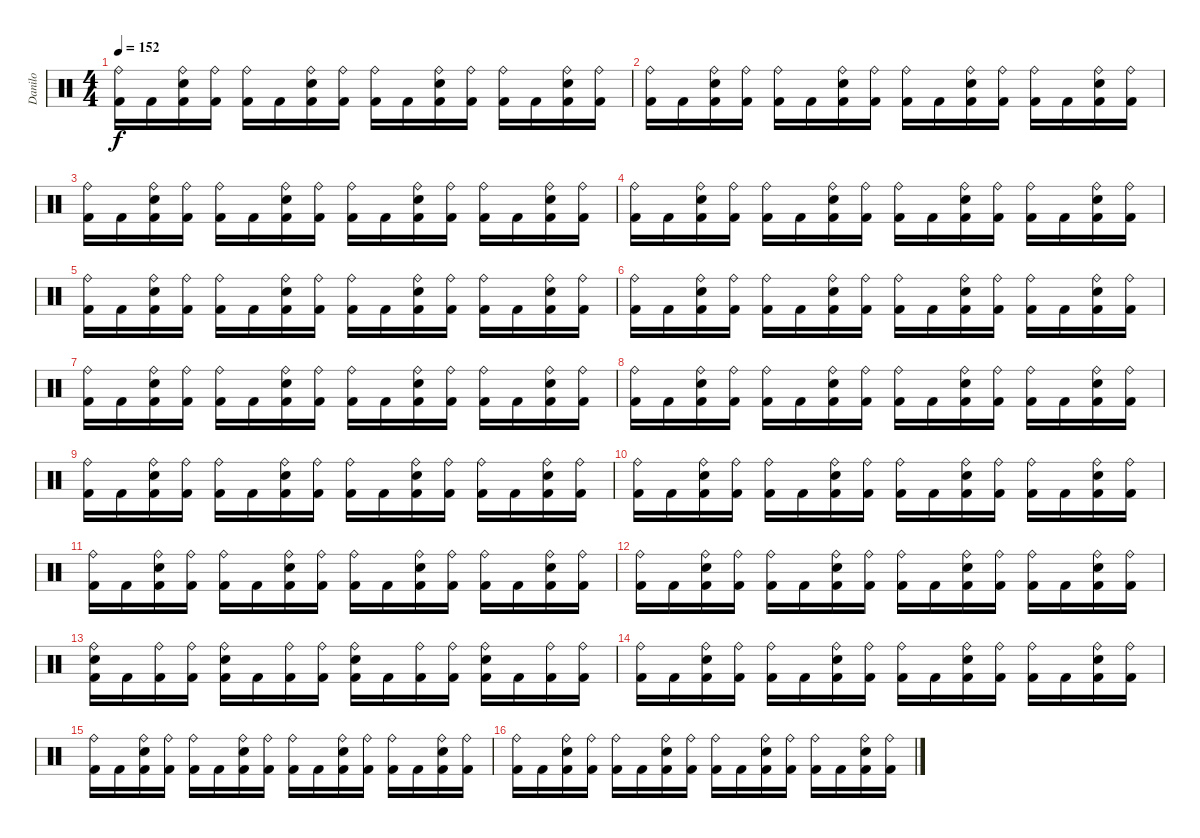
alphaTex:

\track ("Danilo" "Danilo") {instrument percussion}
\staff {score}
\articulation defaults
\ts (4 4)
\tempo 152
\clef neutral
\ks c
("Ride (bell)" "Kick (hit) 2").16{dy f} "Kick (hit) 2".16 ("Ride (bell)" "Snare (hit) 2" "Kick (hit) 2").16 ("Ride (bell)" "Kick (hit) 2").16 ("Ride (bell)" "Kick (hit) 2").16 "Kick (hit) 2".16 ("Ride (bell)" "Snare (hit) 2" "Kick (hit) 2").16 ("Ride (bell)" "Kick (hit) 2").16 ("Ride (bell)" "Kick (hit) 2").16 "Kick (hit) 2".16 ("Ride (bell)" "Snare (hit) 2" "Kick (hit) 2").16 ("Ride (bell)" "Kick (hit) 2").16 ("Ride (bell)" "Kick (hit) 2").16 "Kick (hit) 2".16 ("Ride (bell)" "Snare (hit) 2" "Kick (hit) 2").16 ("Ride (bell)" "Kick (hit) 2").16 |
("Ride (bell)" "Kick (hit) 2").16 "Kick (hit) 2".16 ("Ride (bell)" "Snare (hit) 2" "Kick (hit) 2").16 ("Ride (bell)" "Kick (hit) 2").16 ("Ride (bell)" "Kick (hit) 2").16 "Kick (hit) 2".16 ("Ride (bell)" "Snare (hit) 2" "Kick (hit) 2").16 ("Ride (bell)" "Kick (hit) 2").16 ("Ride (bell)" "Kick (hit) 2").16 "Kick (hit) 2".16 ("Ride (bell)" "Snare (hit) 2" "Kick (hit) 2").16 ("Ride (bell)" "Kick (hit) 2").16 ("Ride (bell)" "Kick (hit) 2").16 "Kick (hit) 2".16 ("Ride (bell)" "Snare (hit) 2" "Kick (hit) 2").16 ("Ride (bell)" "Kick (hit) 2").16 |
("Ride (bell)" "Kick (hit) 2").16 "Kick (hit) 2".16 ("Ride (bell)" "Snare (hit) 2" "Kick (hit) 2").16 ("Ride (bell)" "Kick (hit) 2").16 ("Ride (bell)" "Kick (hit) 2").16 "Kick (hit) 2".16 ("Ride (bell)" "Snare (hit) 2" "Kick (hit) 2").16 ("Ride (bell)" "Kick (hit) 2").16 ("Ride (bell)" "Kick (hit) 2").16 "Kick (hit) 2".16 ("Ride (bell)" "Snare (hit) 2" "Kick (hit) 2").16 ("Ride (bell)" "Kick (hit) 2").16 ("Ride (bell)" "Kick (hit) 2").16 "Kick (hit) 2".16 ("Ride (bell)" "Snare (hit) 2" "Kick (hit) 2").16 ("Ride (bell)" "Kick (hit) 2").16 |
("Ride (bell)" "Kick (hit) 2").16 "Kick (hit) 2".16 ("Ride (bell)" "Snare (hit) 2" "Kick (hit) 2").16 ("Ride (bell)" "Kick (hit) 2").16 ("Ride (bell)" "Kick (hit) 2").16 "Kick (hit) 2".16 ("Ride (bell)" "Snare (hit) 2" "Kick (hit) 2").16 ("Ride (bell)" "Kick (hit) 2").16 ("Ride (bell)" "Kick (hit) 2").16 "Kick (hit) 2".16 ("Ride (bell)" "Snare (hit) 2" "Kick (hit) 2").16 ("Ride (bell)" "Kick (hit) 2").16 ("Ride (bell)" "Kick (hit) 2").16 "Kick (hit) 2".16 ("Ride (bell)" "Snare (hit) 2" "Kick (hit) 2").16 ("Ride (bell)" "Kick (hit) 2").16 |
("Ride (bell)" "Kick (hit) 2").16 "Kick (hit) 2".16 ("Ride (bell)" "Snare (hit) 2" "Kick (hit) 2").16 ("Ride (bell)" "Kick (hit) 2").16 ("Ride (bell)" "Kick (hit) 2").16 "Kick (hit) 2".16 ("Ride (bell)" "Snare (hit) 2" "Kick (hit) 2").16 ("Ride (bell)" "Kick (hit) 2").16 ("Ride (bell)" "Kick (hit) 2").16 "Kick (hit) 2".16 ("Ride (bell)" "Snare (hit) 2" "Kick (hit) 2").16 ("Ride (bell)" "Kick (hit) 2").16 ("Ride (bell)" "Kick (hit) 2").16 "Kick (hit) 2".16 ("Ride (bell)" "Snare (hit) 2" "Kick (hit) 2").16 ("Ride (bell)" "Kick (hit) 2").16 |
("Ride (bell)" "Kick (hit) 2").16 "Kick (hit) 2".16 ("Ride (bell)" "Snare (hit) 2" "Kick (hit) 2").16 ("Ride (bell)" "Kick (hit) 2").16 ("Ride (bell)" "Kick (hit) 2").16 "Kick (hit) 2".16 ("Ride (bell)" "Snare (hit) 2" "Kick (hit) 2").16 ("Ride (bell)" "Kick (hit) 2").16 ("Ride (bell)" "Kick (hit) 2").16 "Kick (hit) 2".16 ("Ride (bell)" "Snare (hit) 2" "Kick (hit) 2").16 ("Ride (bell)" "Kick (hit) 2").16 ("Ride (bell)" "Kick (hit) 2").16 "Kick (hit) 2".16 ("Ride (bell)" "Snare (hit) 2" "Kick (hit) 2").16 ("Ride (bell)" "Kick (hit) 2").16 |
("Ride (bell)" "Kick (hit) 2").16 "Kick (hit) 2".16 ("Ride (bell)" "Snare (hit) 2" "Kick (hit) 2").16 ("Ride (bell)" "Kick (hit) 2").16 ("Ride (bell)" "Kick (hit) 2").16 "Kick (hit) 2".16 ("Ride (bell)" "Snare (hit) 2" "Kick (hit) 2").16 ("Ride (bell)" "Kick (hit) 2").16 ("Ride (bell)" "Kick (hit) 2").16 "Kick (hit) 2".16 ("Ride (bell)" "Snare (hit) 2" "Kick (hit) 2").16 ("Ride (bell)" "Kick (hit) 2").16 ("Ride (bell)" "Kick (hit) 2").16 "Kick (hit) 2".16 ("Ride (bell)" "Snare (hit) 2" "Kick (hit) 2").16 ("Ride (bell)" "Kick (hit) 2").16 |
("Ride (bell)" "Kick (hit) 2").16 "Kick (hit) 2".16 ("Ride (bell)" "Snare (hit) 2" "Kick (hit) 2").16 ("Ride (bell)" "Kick (hit) 2").16 ("Ride (bell)" "Kick (hit) 2").16 "Kick (hit) 2".16 ("Ride (bell)" "Snare (hit) 2" "Kick (hit) 2").16 ("Ride (bell)" "Kick (hit) 2").16 ("Ride (bell)" "Kick (hit) 2").16 "Kick (hit) 2".16 ("Ride (bell)" "Snare (hit) 2" "Kick (hit) 2").16 ("Ride (bell)" "Kick (hit) 2").16 ("Ride (bell)" "Kick (hit) 2").16 "Kick (hit) 2".16 ("Ride (bell)" "Snare (hit) 2" "Kick (hit) 2").16 ("Ride (bell)" "Kick (hit) 2").16 |
("Ride (bell)" "Kick (hit) 2").16 "Kick (hit) 2".16 ("Ride (bell)" "Snare (hit) 2" "Kick (hit) 2").16 ("Ride (bell)" "Kick (hit) 2").16 ("Ride (bell)" "Kick (hit) 2").16 "Kick (hit) 2".16 ("Ride (bell)" "Snare (hit) 2" "Kick (hit) 2").16 ("Ride (bell)" "Kick (hit) 2").16 ("Ride (bell)" "Kick (hit) 2").16 "Kick (hit) 2".16 ("Ride (bell)" "Snare (hit) 2" "Kick (hit) 2").16 ("Ride (bell)" "Kick (hit) 2").16 ("Ride (bell)" "Kick (hit) 2").16 "Kick (hit) 2".16 ("Ride (bell)" "Snare (hit) 2" "Kick (hit) 2").16 ("Ride (bell)" "Kick (hit) 2").16 |
("Ride (bell)" "Kick (hit) 2").16 "Kick (hit) 2".16 ("Ride (bell)" "Snare (hit) 2" "Kick (hit) 2").16 ("Ride (bell)" "Kick (hit) 2").16 ("Ride (bell)" "Kick (hit) 2").16 "Kick (hit) 2".16 ("Ride (bell)" "Snare (hit) 2" "Kick (hit) 2").16 ("Ride (bell)" "Kick (hit) 2").16 ("Ride (bell)" "Kick (hit) 2").16 "Kick (hit) 2".16 ("Ride (bell)" "Snare (hit) 2" "Kick (hit) 2").16 ("Ride (bell)" "Kick (hit) 2").16 ("Ride (bell)" "Kick (hit) 2").16 "Kick (hit) 2".16 ("Ride (bell)" "Snare (hit) 2" "Kick (hit) 2").16 ("Ride (bell)" "Kick (hit) 2").16 |
("Ride (bell)" "Kick (hit) 2").16 "Kick (hit) 2".16 ("Ride (bell)" "Snare (hit) 2" "Kick (hit) 2").16 ("Ride (bell)" "Kick (hit) 2").16 ("Ride (bell)" "Kick (hit) 2").16 "Kick (hit) 2".16 ("Ride (bell)" "Snare (hit) 2" "Kick (hit) 2").16 ("Ride (bell)" "Kick (hit) 2").16 ("Ride (bell)" "Kick (hit) 2").16 "Kick (hit) 2".16 ("Ride (bell)" "Snare (hit) 2" "Kick (hit) 2").16 ("Ride (bell)" "Kick (hit) 2").16 ("Ride (bell)" "Kick (hit) 2").16 "Kick (hit) 2".16 ("Ride (bell)" "Snare (hit) 2" "Kick (hit) 2").16 ("Ride (bell)" "Kick (hit) 2").16 |
("Ride (bell)" "Kick (hit) 2").16 "Kick (hit) 2".16 ("Ride (bell)" "Snare (hit) 2" "Kick (hit) 2").16 ("Ride (bell)" "Kick (hit) 2").16 ("Ride (bell)" "Kick (hit) 2").16 "Kick (hit) 2".16 ("Ride (bell)" "Snare (hit) 2" "Kick (hit) 2").16 ("Ride (bell)" "Kick (hit) 2").16 ("Ride (bell)" "Kick (hit) 2").16 "Kick (hit) 2".16 ("Ride (bell)" "Snare (hit) 2" "Kick (hit) 2").16 ("Ride (bell)" "Kick (hit) 2").16 ("Ride (bell)" "Kick (hit) 2").16 "Kick (hit) 2".16 ("Ride (bell)" "Snare (hit) 2" "Kick (hit) 2").16 ("Ride (bell)" "Kick (hit) 2").16 |
("Ride (bell)" "Snare (hit) 2" "Kick (hit) 2").16 "Kick (hit) 2".16 ("Ride (bell)" "Kick (hit) 2").16 ("Ride (bell)" "Kick (hit) 2").16 ("Ride (bell)" "Snare (hit) 2" "Kick (hit) 2").16 "Kick (hit) 2".16 ("Ride (bell)" "Kick (hit) 2").16 ("Ride (bell)" "Kick (hit) 2").16 ("Ride (bell)" "Snare (hit) 2" "Kick (hit) 2").16 "Kick (hit) 2".16 ("Ride (bell)" "Kick (hit) 2").16 ("Ride (bell)" "Kick (hit) 2").16 ("Ride (bell)" "Snare (hit) 2" "Kick (hit) 2").16 "Kick (hit) 2".16 ("Ride (bell)" "Kick (hit) 2").16 ("Ride (bell)" "Kick (hit) 2").16 |
("Ride (bell)" "Kick (hit) 2").16 "Kick (hit) 2".16 ("Ride (bell)" "Snare (hit) 2" "Kick (hit) 2").16 ("Ride (bell)" "Kick (hit) 2").16 ("Ride (bell)" "Kick (hit) 2").16 "Kick (hit) 2".16 ("Ride (bell)" "Snare (hit) 2" "Kick (hit) 2").16 ("Ride (bell)" "Kick (hit) 2").16 ("Ride (bell)" "Kick (hit) 2").16 "Kick (hit) 2".16 ("Ride (bell)" "Snare (hit) 2" "Kick (hit) 2").16 ("Ride (bell)" "Kick (hit) 2").16 ("Ride (bell)" "Kick (hit) 2").16 "Kick (hit) 2".16 ("Ride (bell)" "Snare (hit) 2" "Kick (hit) 2").16 ("Ride (bell)" "Kick (hit) 2").16 |
("Ride (bell)" "Kick (hit) 2").16 "Kick (hit) 2".16 ("Ride (bell)" "Snare (hit) 2" "Kick (hit) 2").16 ("Ride (bell)" "Kick (hit) 2").16 ("Ride (bell)" "Kick (hit) 2").16 "Kick (hit) 2".16 ("Ride (bell)" "Snare (hit) 2" "Kick (hit) 2").16 ("Ride (bell)" "Kick (hit) 2").16 ("Ride (bell)" "Kick (hit) 2").16 "Kick (hit) 2".16 ("Ride (bell)" "Snare (hit) 2" "Kick (hit) 2").16 ("Ride (bell)" "Kick (hit) 2").16 ("Ride (bell)" "Kick (hit) 2").16 "Kick (hit) 2".16 ("Ride (bell)" "Snare (hit) 2" "Kick (hit) 2").16 ("Ride (bell)" "Kick (hit) 2").16 |
("Ride (bell)" "Kick (hit) 2").16 "Kick (hit) 2".16 ("Ride (bell)" "Snare (hit) 2" "Kick (hit) 2").16 ("Ride (bell)" "Kick (hit) 2").16 ("Ride (bell)" "Kick (hit) 2").16 "Kick (hit) 2".16 ("Ride (bell)" "Snare (hit) 2" "Kick (hit) 2").16 ("Ride (bell)" "Kick (hit) 2").16 ("Ride (bell)" "Kick (hit) 2").16 "Kick (hit) 2".16 ("Ride (bell)" "Snare (hit) 2" "Kick (hit) 2").16 ("Ride (bell)" "Kick (hit) 2").16 ("Ride (bell)" "Kick (hit) 2").16 "Kick (hit) 2".16 ("Ride (bell)" "Snare (hit) 2" "Kick (hit) 2").16 ("Ride (bell)" "Kick (hit) 2").16
